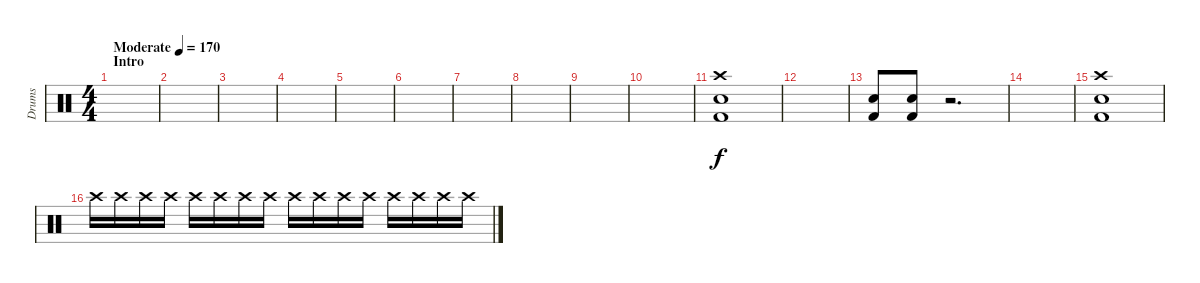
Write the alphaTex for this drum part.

\track ("Drums" "Drums") {instrument percussion}
\staff {score}
\articulation defaults
\ts (4 4)
\section ("" "Intro")
\tempo (170 "Moderate")
\clef neutral
\ks c
|
|
|
|
|
|
|
|
|
|
("Crash high (hit)" "Snare (hit) 2" "Kick (hit) 2").1 |
|
("Snare (hit) 2" "Kick (hit) 2").8 ("Snare (hit) 2" "Kick (hit) 2").8 r.2{d} |
|
("Crash high (hit)" "Snare (hit) 2" "Kick (hit) 2").1 |
"Crash high (hit)".16{volume 9} "Crash high (hit)".16 "Crash high (hit)".16 "Crash high (hit)".16 "Crash high (hit)".16 "Crash high (hit)".16 "Crash high (hit)".16 "Crash high (hit)".16 "Crash high (hit)".16 "Crash high (hit)".16 "Crash high (hit)".16 "Crash high (hit)".16 "Crash high (hit)".16{volume 13} "Crash high (hit)".16 "Crash high (hit)".16 "Crash high (hit)".16{volume 16}
